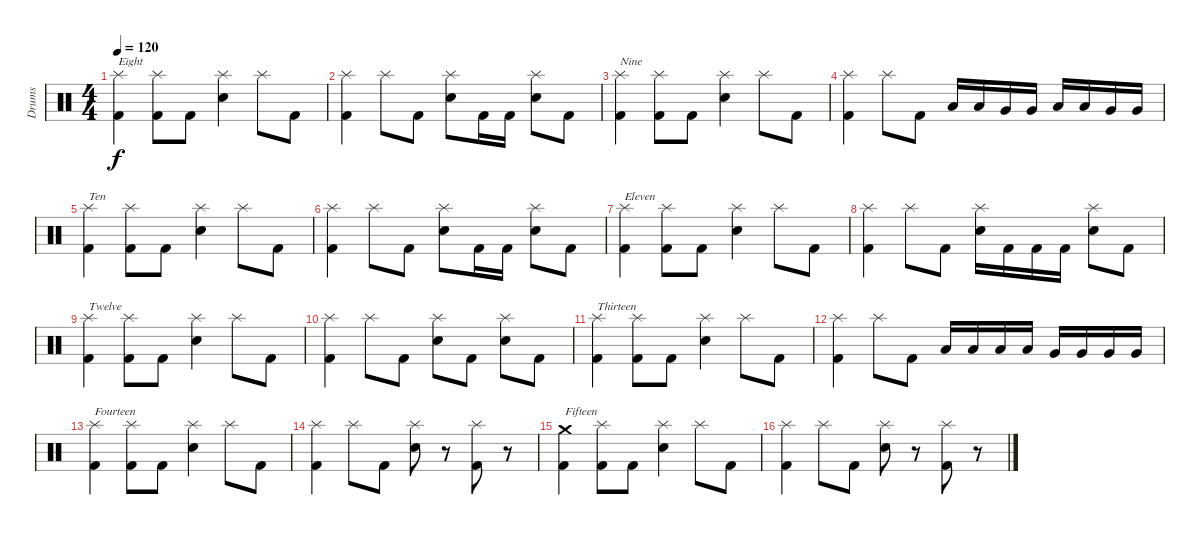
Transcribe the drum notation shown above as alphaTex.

\track ("Drums" "Drums") {instrument percussion}
\staff {score}
\articulation defaults
\ts (4 4)
\tempo 120
\clef neutral
\ks c
("Splash (hit)" "Kick (hit) 2").4{txt "Eight" dy f} ("Splash (hit)" "Kick (hit) 2").8 "Kick (hit) 2".8 ("Splash (hit)" "Snare (hit) 2").4 "Splash (hit)".8 "Kick (hit) 2".8 |
("Splash (hit)" "Kick (hit) 2").4 "Splash (hit)".8 "Kick (hit) 2".8 ("Splash (hit)" "Snare (hit) 2").8 "Kick (hit) 2".16 "Kick (hit) 2".16 ("Splash (hit)" "Snare (hit) 2").8 "Kick (hit) 2".8 |
("Splash (hit)" "Kick (hit) 2").4{txt "Nine"} ("Splash (hit)" "Kick (hit) 2").8 "Kick (hit) 2".8 ("Splash (hit)" "Snare (hit) 2").4 "Splash (hit)".8 "Kick (hit) 2".8 |
("Splash (hit)" "Kick (hit) 2").4 "Splash (hit)".8 "Kick (hit) 2".8 "Low Tom (hit)".16 "Low Tom (hit)".16 "Very Low Tom (hit)".16 "Very Low Tom (hit)".16 "Low Tom (hit)".16 "Low Tom (hit)".16 "Very Low Tom (hit)".16 "Very Low Tom (hit)".16 |
("Splash (hit)" "Kick (hit) 2").4{txt "Ten"} ("Splash (hit)" "Kick (hit) 2").8 "Kick (hit) 2".8 ("Splash (hit)" "Snare (hit) 2").4 "Splash (hit)".8 "Kick (hit) 2".8 |
("Splash (hit)" "Kick (hit) 2").4 "Splash (hit)".8 "Kick (hit) 2".8 ("Splash (hit)" "Snare (hit) 2").8 "Kick (hit) 2".16 "Kick (hit) 2".16 ("Splash (hit)" "Snare (hit) 2").8 "Kick (hit) 2".8 |
("Splash (hit)" "Kick (hit) 2").4{txt "Eleven"} ("Splash (hit)" "Kick (hit) 2").8 "Kick (hit) 2".8 ("Splash (hit)" "Snare (hit) 2").4 "Splash (hit)".8 "Kick (hit) 2".8 |
("Splash (hit)" "Kick (hit) 2").4 "Splash (hit)".8 "Kick (hit) 2".8 ("Splash (hit)" "Snare (hit) 2").16 "Kick (hit) 2".16 "Kick (hit) 2".16 "Kick (hit) 2".16 ("Splash (hit)" "Snare (hit) 2").8 "Kick (hit) 2".8 |
("Splash (hit)" "Kick (hit) 2").4{txt "Twelve"} ("Splash (hit)" "Kick (hit) 2").8 "Kick (hit) 2".8 ("Splash (hit)" "Snare (hit) 2").4 "Splash (hit)".8 "Kick (hit) 2".8 |
("Splash (hit)" "Kick (hit) 2").4 "Splash (hit)".8 "Kick (hit) 2".8 ("Splash (hit)" "Snare (hit) 2").8 "Kick (hit) 2".8 ("Splash (hit)" "Snare (hit) 2").8 "Kick (hit) 2".8 |
("Splash (hit)" "Kick (hit) 2").4{txt "Thirteen"} ("Splash (hit)" "Kick (hit) 2").8 "Kick (hit) 2".8 ("Splash (hit)" "Snare (hit) 2").4 "Splash (hit)".8 "Kick (hit) 2".8 |
("Splash (hit)" "Kick (hit) 2").4 "Splash (hit)".8 "Kick (hit) 2".8 "Low Tom (hit)".16 "Low Tom (hit)".16 "Low Tom (hit)".16 "Low Tom (hit)".16 "Very Low Tom (hit)".16 "Very Low Tom (hit)".16 "Very Low Tom (hit)".16 "Very Low Tom (hit)".16 |
("Splash (hit)" "Kick (hit) 2").4{txt "Fourteen"} ("Splash (hit)" "Kick (hit) 2").8 "Kick (hit) 2".8 ("Splash (hit)" "Snare (hit) 2").4 "Splash (hit)".8 "Kick (hit) 2".8 |
("Splash (hit)" "Kick (hit) 2").4 "Splash (hit)".8 "Kick (hit) 2".8 ("Splash (hit)" "Snare (hit) 2").8 r.8 ("Splash (hit)" "Kick (hit) 2").8 r.8 |
("Crash medium (hit)" "Kick (hit) 2").4{txt "Fifteen"} ("Splash (hit)" "Kick (hit) 2").8 "Kick (hit) 2".8 ("Splash (hit)" "Snare (hit) 2").4 "Splash (hit)".8 "Kick (hit) 2".8 |
("Splash (hit)" "Kick (hit) 2").4 "Splash (hit)".8 "Kick (hit) 2".8 ("Splash (hit)" "Snare (hit) 2").8 r.8 ("Splash (hit)" "Kick (hit) 2").8 r.8
